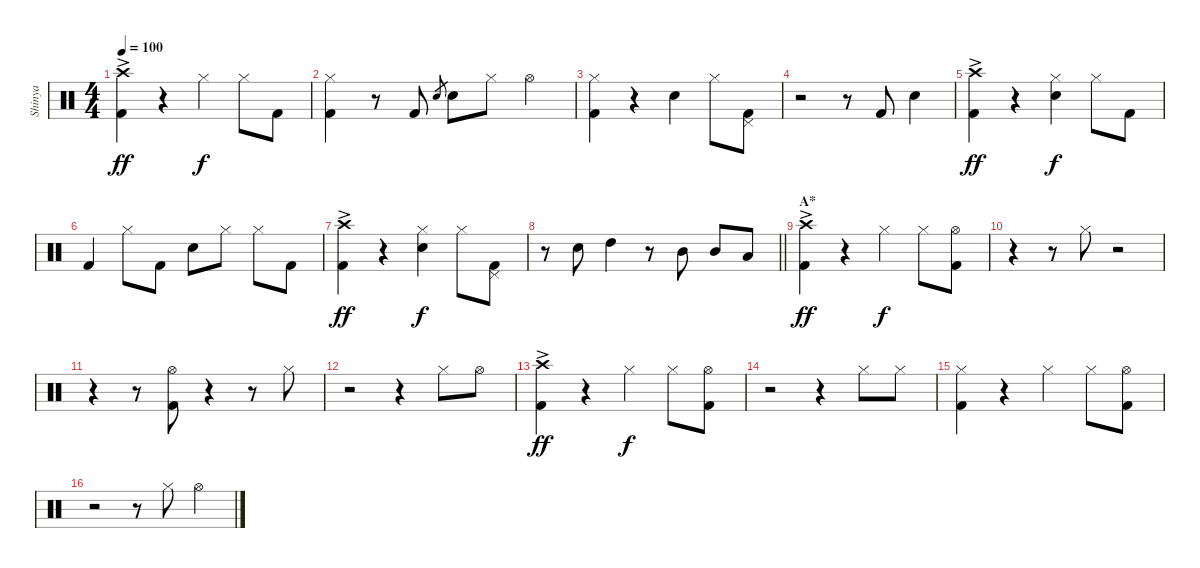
\track ("Shinya" "Shinya") {instrument percussion}
\staff {score}
\articulation defaults
\ts (4 4)
\tempo 100
\clef neutral
\ks c
("Crash high (hit)"{ac} "Kick (hit) 2").4{dy ff} r.4 "Hi-Hat (closed)".4{dy f} "Hi-Hat (closed)".8 "Kick (hit) 2".8 |
("Hi-Hat (closed)" "Kick (hit) 2").4 r.8 "Kick (hit) 2".8 "Snare (hit) 2".8{gr} "Snare (hit) 2".8 "Hi-Hat (closed)".8 "Hi-Hat (open)".4 |
("Hi-Hat (closed)" "Kick (hit) 2").4 r.4 "Snare (hit) 2".4 "Hi-Hat (closed)".8 ("Pedal Hi-Hat (hit)" "Kick (hit) 2").8 |
r.2 r.8 "Kick (hit) 2".8 "Snare (hit) 2".4 |
("Crash high (hit)"{ac} "Kick (hit) 2").4{dy ff} r.4 ("Hi-Hat (closed)" "Snare (hit) 2").4{dy f} "Hi-Hat (closed)".8 "Kick (hit) 2".8 |
"Kick (hit) 2".4 "Hi-Hat (closed)".8 "Kick (hit) 2".8 "Snare (hit) 2".8 "Hi-Hat (closed)".8 "Hi-Hat (closed)".8 "Kick (hit) 2".8 |
("Crash high (hit)"{ac} "Kick (hit) 2").4{dy ff} r.4 ("Hi-Hat (closed)" "Snare (hit) 2").4{dy f} "Hi-Hat (closed)".8 ("Pedal Hi-Hat (hit)" "Kick (hit) 2").8 |
\barLineRight lightlight
r.8 "Snare (hit) 2".8 "High Tom (hit)".4 r.8 "Mid Tom (hit)".8 "Mid Tom (hit)".8 "Low Tom (hit)".8 |
\section ("" "A*")
("Crash high (hit)"{ac} "Kick (hit) 2").4{dy ff} r.4 "Hi-Hat (closed)".4{dy f} "Hi-Hat (closed)".8 ("Hi-Hat (open)" "Kick (hit) 2").8 |
r.4 r.8 "Hi-Hat (closed)".8 r.2 |
r.4 r.8 ("Hi-Hat (open)" "Kick (hit) 2").8 r.4 r.8 "Hi-Hat (closed)".8 |
r.2 r.4 "Hi-Hat (closed)".8 "Hi-Hat (open)".8 |
("Crash high (hit)"{ac} "Kick (hit) 2").4{dy ff} r.4 "Hi-Hat (closed)".4{dy f} "Hi-Hat (closed)".8 ("Hi-Hat (open)" "Kick (hit) 2").8 |
r.2 r.4 "Hi-Hat (closed)".8 "Hi-Hat (closed)".8 |
("Hi-Hat (closed)" "Kick (hit) 2").4 r.4 "Hi-Hat (closed)".4 "Hi-Hat (closed)".8 ("Hi-Hat (open)" "Kick (hit) 2").8 |
r.2 r.8 "Hi-Hat (closed)".8 "Hi-Hat (open)".4
